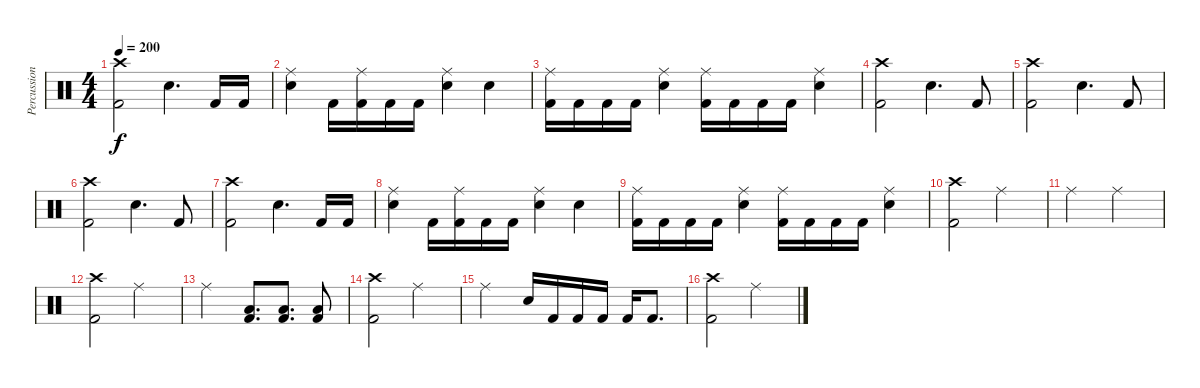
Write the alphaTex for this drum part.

\track ("Percussion" "Percussion") {instrument percussion}
\staff {score}
\articulation defaults
\ts (4 4)
\tempo 200
\clef neutral
\ks c
("Crash high (hit)" "Kick (hit) 2").2{dy f} "Snare (hit) 2".4{d} "Kick (hit) 2".16 "Kick (hit) 2".16 |
("Ride (middle)" "Snare (hit) 2").4 "Kick (hit) 2".16 ("Ride (middle)" "Kick (hit) 2").16 "Kick (hit) 2".16 "Kick (hit) 2".16 ("Ride (middle)" "Snare (hit) 2").4 "Snare (hit) 2".4 |
("Ride (middle)" "Kick (hit) 2").16 "Kick (hit) 2".16 "Kick (hit) 2".16 "Kick (hit) 2".16 ("Ride (middle)" "Snare (hit) 2").4 ("Ride (middle)" "Kick (hit) 2").16 "Kick (hit) 2".16 "Kick (hit) 2".16 "Kick (hit) 2".16 ("Ride (middle)" "Snare (hit) 2").4 |
("Crash high (hit)" "Kick (hit) 2").2 "Snare (hit) 2".4{d} "Kick (hit) 2".8 |
("Crash high (hit)" "Kick (hit) 2").2 "Snare (hit) 2".4{d} "Kick (hit) 2".8 |
("Crash high (hit)" "Kick (hit) 2").2 "Snare (hit) 2".4{d} "Kick (hit) 2".8 |
("Crash high (hit)" "Kick (hit) 2").2 "Snare (hit) 2".4{d} "Kick (hit) 2".16 "Kick (hit) 2".16 |
("Ride (middle)" "Snare (hit) 2").4 "Kick (hit) 2".16 ("Ride (middle)" "Kick (hit) 2").16 "Kick (hit) 2".16 "Kick (hit) 2".16 ("Ride (middle)" "Snare (hit) 2").4 "Snare (hit) 2".4 |
("Ride (middle)" "Kick (hit) 2").16 "Kick (hit) 2".16 "Kick (hit) 2".16 "Kick (hit) 2".16 ("Ride (middle)" "Snare (hit) 2").4 ("Ride (middle)" "Kick (hit) 2").16 "Kick (hit) 2".16 "Kick (hit) 2".16 "Kick (hit) 2".16 ("Ride (middle)" "Snare (hit) 2").4 |
("Crash high (hit)" "Kick (hit) 2").2 "Ride (middle)".2 |
"Ride (middle)".2 "Ride (middle)".2 |
("Crash high (hit)" "Kick (hit) 2").2 "Ride (middle)".2 |
"Ride (middle)".2 ("Low Floor Tom (hit)" "Kick (hit) 2").8{d} ("Low Floor Tom (hit)" "Kick (hit) 2").8{d} ("Low Floor Tom (hit)" "Kick (hit) 2").8 |
("Crash high (hit)" "Kick (hit) 2").2 "Ride (middle)".2 |
"Ride (middle)".2 "Snare (hit) 2".16 "Kick (hit) 2".16 "Kick (hit) 2".16 "Kick (hit) 2".16 "Kick (hit) 2".16 "Kick (hit) 2".8{d} |
("Crash high (hit)" "Kick (hit) 2").2 "Ride (middle)".2
